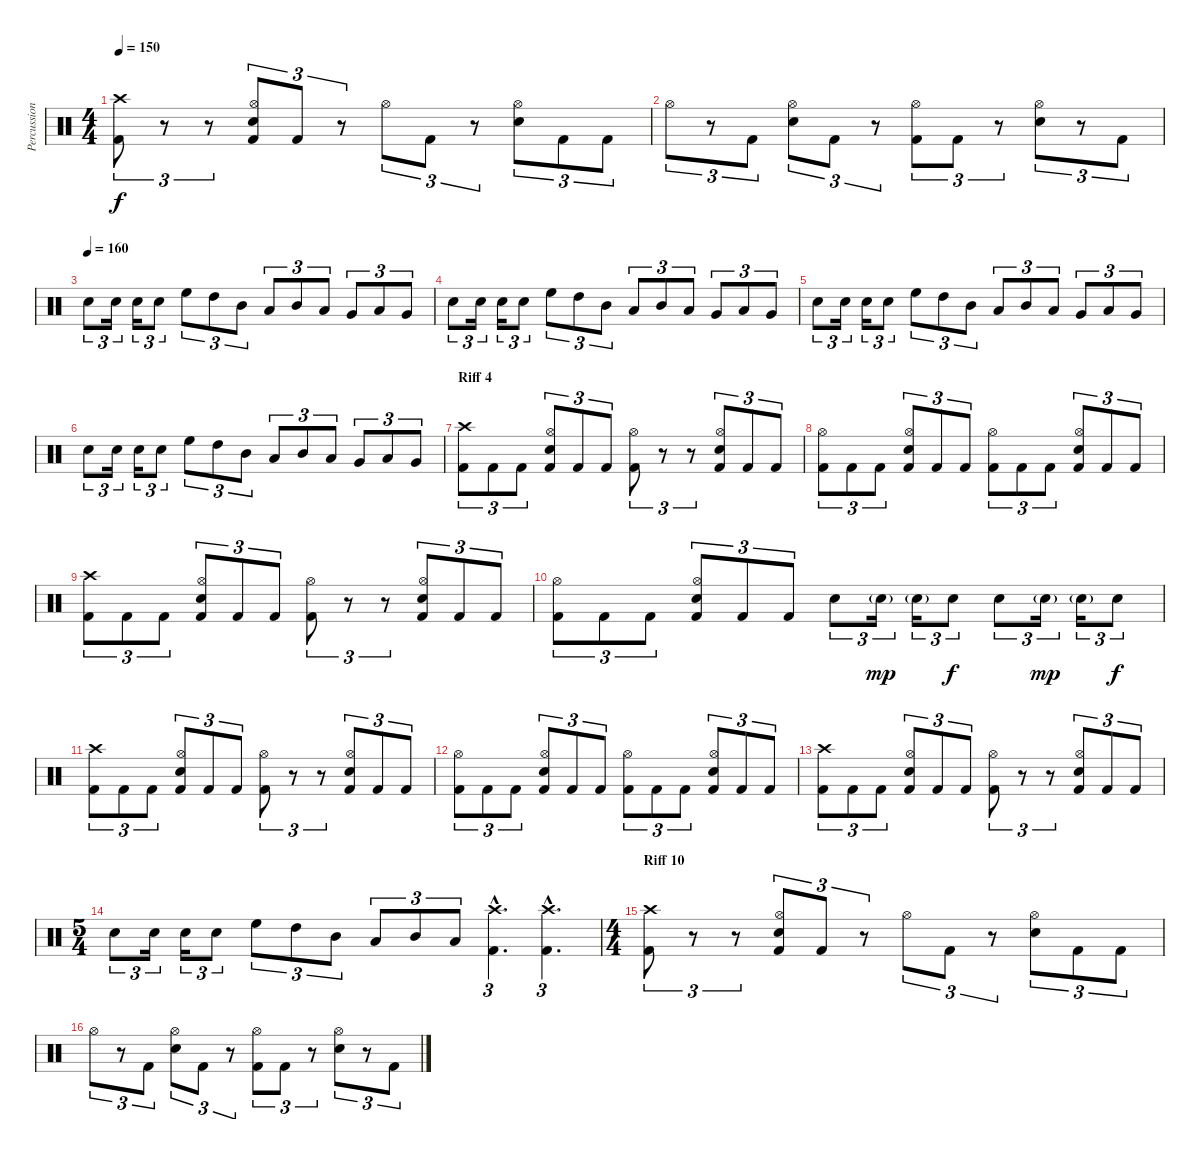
\track ("Percussion" "Percussion") {instrument percussion}
\staff {score}
\articulation defaults
\ts (4 4)
\tempo 150
\clef neutral
\ks c
("Crash high (hit)" "Kick (hit) 2").8{tu (3 2) dy f} r.8{tu (3 2)} r.8{tu (3 2)} ("Hi-Hat (open)" "Electric Snare (hit)" "Kick (hit) 2").8{tu (3 2)} "Kick (hit) 2".8{tu (3 2)} r.8{tu (3 2)} "Hi-Hat (open)".8{tu (3 2)} "Kick (hit) 2".8{tu (3 2)} r.8{tu (3 2)} ("Hi-Hat (open)" "Electric Snare (hit)").8{tu (3 2)} "Kick (hit) 2".8{tu (3 2)} "Kick (hit) 2".8{tu (3 2)} |
"Hi-Hat (open)".8{tu (3 2)} r.8{tu (3 2)} "Kick (hit) 2".8{tu (3 2)} ("Hi-Hat (open)" "Electric Snare (hit)").8{tu (3 2)} "Kick (hit) 2".8{tu (3 2)} r.8{tu (3 2)} ("Hi-Hat (open)" "Kick (hit) 2").8{tu (3 2)} "Kick (hit) 2".8{tu (3 2)} r.8{tu (3 2)} ("Hi-Hat (open)" "Electric Snare (hit)").8{tu (3 2)} r.8{tu (3 2)} "Kick (hit) 2".8{tu (3 2)} |
\tempo (160)
"Electric Snare (hit)".8{tu (3 2)} "Electric Snare (hit)".16{tu (3 2)} "Electric Snare (hit)".16{tu (3 2)} "Electric Snare (hit)".8{tu (3 2)} "High Floor Tom (hit)".8{tu (3 2)} "High Tom (hit)".8{tu (3 2)} "Mid Tom (hit)".8{tu (3 2)} "Low Tom (hit)".8{tu (3 2)} "Mid Tom (hit)".8{tu (3 2)} "Low Tom (hit)".8{tu (3 2)} "Very Low Tom (hit)".8{tu (3 2)} "Low Floor Tom (hit)".8{tu (3 2)} "Very Low Tom (hit)".8{tu (3 2)} |
"Electric Snare (hit)".8{tu (3 2)} "Electric Snare (hit)".16{tu (3 2)} "Electric Snare (hit)".16{tu (3 2)} "Electric Snare (hit)".8{tu (3 2)} "High Floor Tom (hit)".8{tu (3 2)} "High Tom (hit)".8{tu (3 2)} "Mid Tom (hit)".8{tu (3 2)} "Low Tom (hit)".8{tu (3 2)} "Mid Tom (hit)".8{tu (3 2)} "Low Tom (hit)".8{tu (3 2)} "Very Low Tom (hit)".8{tu (3 2)} "Low Floor Tom (hit)".8{tu (3 2)} "Very Low Tom (hit)".8{tu (3 2)} |
"Electric Snare (hit)".8{tu (3 2)} "Electric Snare (hit)".16{tu (3 2)} "Electric Snare (hit)".16{tu (3 2)} "Electric Snare (hit)".8{tu (3 2)} "High Floor Tom (hit)".8{tu (3 2)} "High Tom (hit)".8{tu (3 2)} "Mid Tom (hit)".8{tu (3 2)} "Low Tom (hit)".8{tu (3 2)} "Mid Tom (hit)".8{tu (3 2)} "Low Tom (hit)".8{tu (3 2)} "Very Low Tom (hit)".8{tu (3 2)} "Low Floor Tom (hit)".8{tu (3 2)} "Very Low Tom (hit)".8{tu (3 2)} |
"Electric Snare (hit)".8{tu (3 2)} "Electric Snare (hit)".16{tu (3 2)} "Electric Snare (hit)".16{tu (3 2)} "Electric Snare (hit)".8{tu (3 2)} "High Floor Tom (hit)".8{tu (3 2)} "High Tom (hit)".8{tu (3 2)} "Mid Tom (hit)".8{tu (3 2)} "Low Tom (hit)".8{tu (3 2)} "Mid Tom (hit)".8{tu (3 2)} "Low Tom (hit)".8{tu (3 2)} "Very Low Tom (hit)".8{tu (3 2)} "Low Floor Tom (hit)".8{tu (3 2)} "Very Low Tom (hit)".8{tu (3 2)} |
\section ("" "Riff 4")
("Crash high (hit)" "Kick (hit) 2").8{tu (3 2)} "Kick (hit) 2".8{tu (3 2)} "Kick (hit) 2".8{tu (3 2)} ("Hi-Hat (open)" "Electric Snare (hit)" "Kick (hit) 2").8{tu (3 2)} "Kick (hit) 2".8{tu (3 2)} "Kick (hit) 2".8{tu (3 2)} ("Hi-Hat (open)" "Kick (hit) 2").8{tu (3 2)} r.8{tu (3 2)} r.8{tu (3 2)} ("Hi-Hat (open)" "Electric Snare (hit)" "Kick (hit) 2").8{tu (3 2)} "Kick (hit) 2".8{tu (3 2)} "Kick (hit) 2".8{tu (3 2)} |
("Hi-Hat (open)" "Kick (hit) 2").8{tu (3 2)} "Kick (hit) 2".8{tu (3 2)} "Kick (hit) 2".8{tu (3 2)} ("Hi-Hat (open)" "Electric Snare (hit)" "Kick (hit) 2").8{tu (3 2)} "Kick (hit) 2".8{tu (3 2)} "Kick (hit) 2".8{tu (3 2)} ("Hi-Hat (open)" "Kick (hit) 2").8{tu (3 2)} "Kick (hit) 2".8{tu (3 2)} "Kick (hit) 2".8{tu (3 2)} ("Hi-Hat (open)" "Electric Snare (hit)" "Kick (hit) 2").8{tu (3 2)} "Kick (hit) 2".8{tu (3 2)} "Kick (hit) 2".8{tu (3 2)} |
("Crash high (hit)" "Kick (hit) 2").8{tu (3 2)} "Kick (hit) 2".8{tu (3 2)} "Kick (hit) 2".8{tu (3 2)} ("Hi-Hat (open)" "Electric Snare (hit)" "Kick (hit) 2").8{tu (3 2)} "Kick (hit) 2".8{tu (3 2)} "Kick (hit) 2".8{tu (3 2)} ("Hi-Hat (open)" "Kick (hit) 2").8{tu (3 2)} r.8{tu (3 2)} r.8{tu (3 2)} ("Hi-Hat (open)" "Electric Snare (hit)" "Kick (hit) 2").8{tu (3 2)} "Kick (hit) 2".8{tu (3 2)} "Kick (hit) 2".8{tu (3 2)} |
("Hi-Hat (open)" "Kick (hit) 2").8{tu (3 2)} "Kick (hit) 2".8{tu (3 2)} "Kick (hit) 2".8{tu (3 2)} ("Hi-Hat (open)" "Electric Snare (hit)" "Kick (hit) 2").8{tu (3 2)} "Kick (hit) 2".8{tu (3 2)} "Kick (hit) 2".8{tu (3 2)} "Electric Snare (hit)".8{tu (3 2)} "Electric Snare (hit)"{g}.16{tu (3 2) dy mp} "Electric Snare (hit)"{g}.16{tu (3 2)} "Electric Snare (hit)".8{tu (3 2) dy f} "Electric Snare (hit)".8{tu (3 2)} "Electric Snare (hit)"{g}.16{tu (3 2) dy mp} "Electric Snare (hit)"{g}.16{tu (3 2)} "Electric Snare (hit)".8{tu (3 2) dy f} |
("Crash high (hit)" "Kick (hit) 2").8{tu (3 2)} "Kick (hit) 2".8{tu (3 2)} "Kick (hit) 2".8{tu (3 2)} ("Hi-Hat (open)" "Electric Snare (hit)" "Kick (hit) 2").8{tu (3 2)} "Kick (hit) 2".8{tu (3 2)} "Kick (hit) 2".8{tu (3 2)} ("Hi-Hat (open)" "Kick (hit) 2").8{tu (3 2)} r.8{tu (3 2)} r.8{tu (3 2)} ("Hi-Hat (open)" "Electric Snare (hit)" "Kick (hit) 2").8{tu (3 2)} "Kick (hit) 2".8{tu (3 2)} "Kick (hit) 2".8{tu (3 2)} |
("Hi-Hat (open)" "Kick (hit) 2").8{tu (3 2)} "Kick (hit) 2".8{tu (3 2)} "Kick (hit) 2".8{tu (3 2)} ("Hi-Hat (open)" "Electric Snare (hit)" "Kick (hit) 2").8{tu (3 2)} "Kick (hit) 2".8{tu (3 2)} "Kick (hit) 2".8{tu (3 2)} ("Hi-Hat (open)" "Kick (hit) 2").8{tu (3 2)} "Kick (hit) 2".8{tu (3 2)} "Kick (hit) 2".8{tu (3 2)} ("Hi-Hat (open)" "Electric Snare (hit)" "Kick (hit) 2").8{tu (3 2)} "Kick (hit) 2".8{tu (3 2)} "Kick (hit) 2".8{tu (3 2)} |
("Crash high (hit)" "Kick (hit) 2").8{tu (3 2)} "Kick (hit) 2".8{tu (3 2)} "Kick (hit) 2".8{tu (3 2)} ("Hi-Hat (open)" "Electric Snare (hit)" "Kick (hit) 2").8{tu (3 2)} "Kick (hit) 2".8{tu (3 2)} "Kick (hit) 2".8{tu (3 2)} ("Hi-Hat (open)" "Kick (hit) 2").8{tu (3 2)} r.8{tu (3 2)} r.8{tu (3 2)} ("Hi-Hat (open)" "Electric Snare (hit)" "Kick (hit) 2").8{tu (3 2)} "Kick (hit) 2".8{tu (3 2)} "Kick (hit) 2".8{tu (3 2)} |
\ts (5 4)
"Electric Snare (hit)".8{tu (3 2)} "Electric Snare (hit)".16{tu (3 2)} "Electric Snare (hit)".16{tu (3 2)} "Electric Snare (hit)".8{tu (3 2)} "High Floor Tom (hit)".8{tu (3 2)} "High Tom (hit)".8{tu (3 2)} "Mid Tom (hit)".8{tu (3 2)} "Low Tom (hit)".8{tu (3 2)} "Mid Tom (hit)".8{tu (3 2)} "Low Tom (hit)".8{tu (3 2)} ("Crash high (hit)"{hac} "Kick (hit) 2"{hac}).4{d tu (3 2)} ("Crash high (hit)"{hac} "Kick (hit) 2"{hac}).4{d tu (3 2)} |
\ts (4 4)
\section ("" "Riff 10")
("Crash high (hit)" "Kick (hit) 2").8{tu (3 2)} r.8{tu (3 2)} r.8{tu (3 2)} ("Hi-Hat (open)" "Electric Snare (hit)" "Kick (hit) 2").8{tu (3 2)} "Kick (hit) 2".8{tu (3 2)} r.8{tu (3 2)} "Hi-Hat (open)".8{tu (3 2)} "Kick (hit) 2".8{tu (3 2)} r.8{tu (3 2)} ("Hi-Hat (open)" "Electric Snare (hit)").8{tu (3 2)} "Kick (hit) 2".8{tu (3 2)} "Kick (hit) 2".8{tu (3 2)} |
"Hi-Hat (open)".8{tu (3 2)} r.8{tu (3 2)} "Kick (hit) 2".8{tu (3 2)} ("Hi-Hat (open)" "Electric Snare (hit)").8{tu (3 2)} "Kick (hit) 2".8{tu (3 2)} r.8{tu (3 2)} ("Hi-Hat (open)" "Kick (hit) 2").8{tu (3 2)} "Kick (hit) 2".8{tu (3 2)} r.8{tu (3 2)} ("Hi-Hat (open)" "Electric Snare (hit)").8{tu (3 2)} r.8{tu (3 2)} "Kick (hit) 2".8{tu (3 2)}
